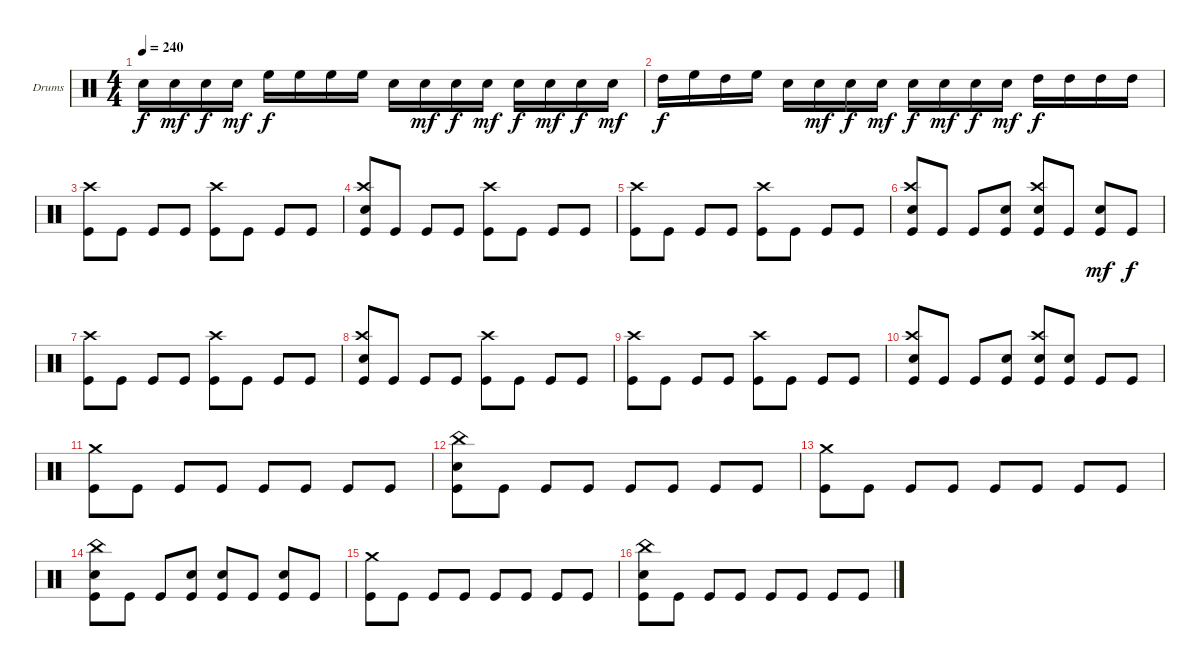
\bracketExtendMode groupsimilarinstruments
\firstSystemTrackNameOrientation horizontal
\otherSystemsTrackNameOrientation horizontal
\track ("Drumkit" "Drums") {instrument percussion}
\staff {score}
\articulation defaults
\ts (4 4)
\tempo 240
\clef neutral
\ks c "Snare (hit) 2".16{dy f} "Snare (hit) 2".16{dy mf} "Snare (hit) 2".16{dy f} "Snare (hit) 2".16{dy mf} "High Floor Tom (hit)".16{dy f} "High Floor Tom (hit)".16 "High Floor Tom (hit)".16 "High Floor Tom (hit)".16 "Snare (hit) 2".16 "Snare (hit) 2".16{dy mf} "Snare (hit) 2".16{dy f} "Snare (hit) 2".16{dy mf} "Snare (hit) 2".16{dy f} "Snare (hit) 2".16{dy mf} "Snare (hit) 2".16{dy f} "Snare (hit) 2".16{dy mf}
|
"High Tom (hit)".16{dy f} "High Floor Tom (hit)".16 "High Tom (hit)".16 "High Floor Tom (hit)".16 "Snare (hit) 2".16 "Snare (hit) 2".16{dy mf} "Snare (hit) 2".16{dy f} "Snare (hit) 2".16{dy mf} "Snare (hit) 2".16{dy f} "Snare (hit) 2".16{dy mf} "Snare (hit) 2".16{dy f} "Snare (hit) 2".16{dy mf} "High Tom (hit)".16{dy f} "High Tom (hit)".16 "High Tom (hit)".16 "High Tom (hit)".16 |
("Crash high (hit)" "Kick (hit)").8 "Kick (hit)".8 "Kick (hit)".8 "Kick (hit)".8 ("Crash high (hit)" "Kick (hit)").8 "Kick (hit)".8 "Kick (hit)".8 "Kick (hit)".8 |
("Crash high (hit)" "Snare (hit) 2" "Kick (hit)").8 "Kick (hit)".8 "Kick (hit)".8 "Kick (hit)".8 ("Crash high (hit)" "Kick (hit)").8 "Kick (hit)".8 "Kick (hit)".8 "Kick (hit)".8 |
("Crash high (hit)" "Kick (hit)").8 "Kick (hit)".8 "Kick (hit)".8 "Kick (hit)".8 ("Crash high (hit)" "Kick (hit)").8 "Kick (hit)".8 "Kick (hit)".8 "Kick (hit)".8 |
("Crash high (hit)" "Snare (hit) 2" "Kick (hit)").8 "Kick (hit)".8 "Kick (hit)".8 ("Snare (hit) 2" "Kick (hit)").8 ("Crash high (hit)" "Snare (hit) 2" "Kick (hit)").8 "Kick (hit)".8 ("Snare (hit) 2" "Kick (hit)").8{dy mf} "Kick (hit)".8{dy f} |
("Crash high (hit)" "Kick (hit)").8 "Kick (hit)".8 "Kick (hit)".8 "Kick (hit)".8 ("Crash high (hit)" "Kick (hit)").8 "Kick (hit)".8 "Kick (hit)".8 "Kick (hit)".8 |
("Crash high (hit)" "Snare (hit) 2" "Kick (hit)").8 "Kick (hit)".8 "Kick (hit)".8 "Kick (hit)".8 ("Crash high (hit)" "Kick (hit)").8 "Kick (hit)".8 "Kick (hit)".8 "Kick (hit)".8 |
("Crash high (hit)" "Kick (hit)").8 "Kick (hit)".8 "Kick (hit)".8 "Kick (hit)".8 ("Crash high (hit)" "Kick (hit)").8 "Kick (hit)".8 "Kick (hit)".8 "Kick (hit)".8 |
("Crash high (hit)" "Snare (hit) 2" "Kick (hit)").8 "Kick (hit)".8 "Kick (hit)".8 ("Snare (hit) 2" "Kick (hit)").8 ("Crash high (hit)" "Snare (hit) 2" "Kick (hit)").8 ("Snare (hit) 2" "Kick (hit)").8 "Kick (hit)".8 "Kick (hit)".8 |
("Crash medium (hit)" "Kick (hit)").8 "Kick (hit)".8 "Kick (hit)".8 "Kick (hit)".8 "Kick (hit)".8 "Kick (hit)".8 "Kick (hit)".8 "Kick (hit)".8 |
("China (hit)" "Snare (hit) 2" "Kick (hit)").8 "Kick (hit)".8 "Kick (hit)".8 "Kick (hit)".8 "Kick (hit)".8 "Kick (hit)".8 "Kick (hit)".8 "Kick (hit)".8 |
("Crash medium (hit)" "Kick (hit)").8 "Kick (hit)".8 "Kick (hit)".8 "Kick (hit)".8 "Kick (hit)".8 "Kick (hit)".8 "Kick (hit)".8 "Kick (hit)".8 |
("China (hit)" "Snare (hit) 2" "Kick (hit)").8 "Kick (hit)".8 "Kick (hit)".8 ("Snare (hit) 2" "Kick (hit)").8 ("Snare (hit) 2" "Kick (hit)").8 "Kick (hit)".8 ("Snare (hit) 2" "Kick (hit)").8 "Kick (hit)".8 |
("Crash medium (hit)" "Kick (hit)").8 "Kick (hit)".8 "Kick (hit)".8 "Kick (hit)".8 "Kick (hit)".8 "Kick (hit)".8 "Kick (hit)".8 "Kick (hit)".8 |
("China (hit)" "Snare (hit) 2" "Kick (hit)").8 "Kick (hit)".8 "Kick (hit)".8 "Kick (hit)".8 "Kick (hit)".8 "Kick (hit)".8 "Kick (hit)".8 "Kick (hit)".8
